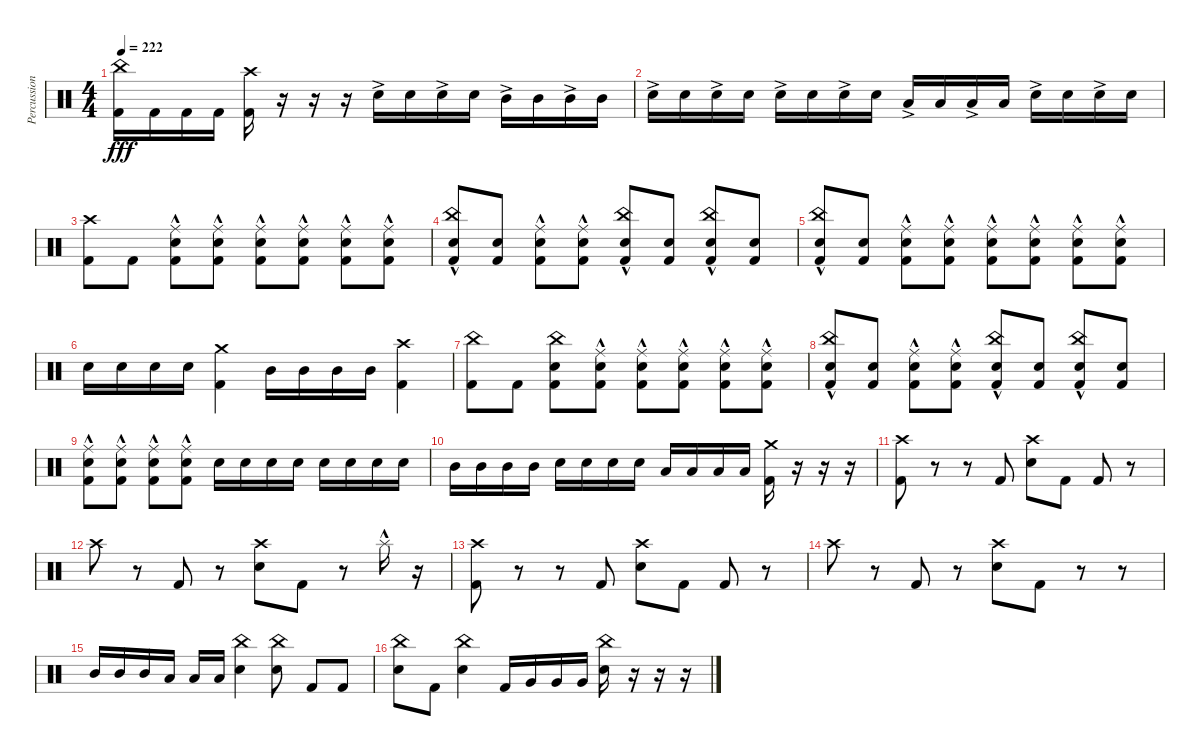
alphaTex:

\track ("Percussion" "Percussion") {instrument percussion}
\staff {score}
\articulation defaults
\ts (4 4)
\tempo 222
\clef neutral
\ks c
("Kick (hit) 2" "China (hit)").16{dy fff} "Kick (hit) 2".16 "Kick (hit) 2".16 "Kick (hit) 2".16 ("Kick (hit) 2" "Crash high (hit)").16 r.16 r.16 r.16 "Electric Snare (hit)"{ac}.16 "Electric Snare (hit)".16 "Electric Snare (hit)"{ac}.16 "Electric Snare (hit)".16 "Mid Tom (hit)"{ac}.16 "Mid Tom (hit)".16 "Mid Tom (hit)"{ac}.16 "Mid Tom (hit)".16 |
"Electric Snare (hit)"{ac}.16 "Electric Snare (hit)".16 "Electric Snare (hit)"{ac}.16 "Electric Snare (hit)".16 "Electric Snare (hit)"{ac}.16 "Electric Snare (hit)".16 "Electric Snare (hit)"{ac}.16 "Electric Snare (hit)".16 "Low Tom (hit)"{ac}.16 "Low Tom (hit)".16 "Low Tom (hit)"{ac}.16 "Low Tom (hit)".16 "Electric Snare (hit)"{ac}.16 "Electric Snare (hit)".16 "Electric Snare (hit)"{ac}.16 "Electric Snare (hit)".16 |
("Kick (hit) 2" "Crash high (hit)").8 "Kick (hit) 2".8 ("Kick (hit) 2" "Electric Snare (hit)" "Ride (middle)"{hac}).8 ("Kick (hit) 2" "Electric Snare (hit)" "Ride (middle)"{hac}).8 ("Kick (hit) 2" "Electric Snare (hit)" "Ride (middle)"{hac}).8 ("Kick (hit) 2" "Electric Snare (hit)" "Ride (middle)"{hac}).8 ("Kick (hit) 2" "Electric Snare (hit)" "Ride (middle)"{hac}).8 ("Kick (hit) 2" "Electric Snare (hit)" "Ride (middle)"{hac}).8 |
("Kick (hit) 2" "Electric Snare (hit)" "China (hit)"{hac}).8 ("Kick (hit) 2" "Electric Snare (hit)").8 ("Kick (hit) 2" "Electric Snare (hit)" "Ride (middle)"{hac}).8 ("Kick (hit) 2" "Electric Snare (hit)" "Ride (middle)"{hac}).8 ("Kick (hit) 2" "Electric Snare (hit)" "China (hit)"{hac}).8 ("Kick (hit) 2" "Electric Snare (hit)").8 ("Kick (hit) 2" "Electric Snare (hit)" "China (hit)"{hac}).8 ("Kick (hit) 2" "Electric Snare (hit)").8 |
("Kick (hit) 2" "Electric Snare (hit)" "China (hit)"{hac}).8 ("Kick (hit) 2" "Electric Snare (hit)").8 ("Kick (hit) 2" "Electric Snare (hit)" "Ride (middle)"{hac}).8 ("Kick (hit) 2" "Electric Snare (hit)" "Ride (middle)"{hac}).8 ("Kick (hit) 2" "Electric Snare (hit)" "Ride (middle)"{hac}).8 ("Kick (hit) 2" "Electric Snare (hit)" "Ride (middle)"{hac}).8 ("Kick (hit) 2" "Electric Snare (hit)" "Ride (middle)"{hac}).8 ("Kick (hit) 2" "Electric Snare (hit)" "Ride (middle)"{hac}).8 |
"Electric Snare (hit)".16 "Electric Snare (hit)".16 "Electric Snare (hit)".16 "Electric Snare (hit)".16 ("Kick (hit) 2" "Crash medium (hit)").4 "Mid Tom (hit)".16 "Mid Tom (hit)".16 "Mid Tom (hit)".16 "Mid Tom (hit)".16 ("Kick (hit) 2" "Crash high (hit)").4 |
("Kick (hit) 2" "China (hit)").8 "Kick (hit) 2".8 ("Kick (hit) 2" "Electric Snare (hit)" "China (hit)").8 ("Kick (hit) 2" "Electric Snare (hit)" "Ride (middle)"{hac}).8 ("Kick (hit) 2" "Electric Snare (hit)" "Ride (middle)"{hac}).8 ("Kick (hit) 2" "Electric Snare (hit)" "Ride (middle)"{hac}).8 ("Kick (hit) 2" "Electric Snare (hit)" "Ride (middle)"{hac}).8 ("Kick (hit) 2" "Electric Snare (hit)" "Ride (middle)"{hac}).8 |
("Kick (hit) 2" "Electric Snare (hit)" "China (hit)"{hac}).8 ("Kick (hit) 2" "Electric Snare (hit)").8 ("Kick (hit) 2" "Electric Snare (hit)" "Ride (middle)"{hac}).8 ("Kick (hit) 2" "Electric Snare (hit)" "Ride (middle)"{hac}).8 ("Kick (hit) 2" "Electric Snare (hit)" "China (hit)"{hac}).8 ("Kick (hit) 2" "Electric Snare (hit)").8 ("Kick (hit) 2" "Electric Snare (hit)" "China (hit)"{hac}).8 ("Kick (hit) 2" "Electric Snare (hit)").8 |
("Kick (hit) 2" "Electric Snare (hit)" "Ride (middle)"{hac}).8 ("Kick (hit) 2" "Electric Snare (hit)" "Ride (middle)"{hac}).8 ("Kick (hit) 2" "Electric Snare (hit)" "Ride (middle)"{hac}).8 ("Kick (hit) 2" "Electric Snare (hit)" "Ride (middle)"{hac}).8 "Electric Snare (hit)".16 "Electric Snare (hit)".16 "Electric Snare (hit)".16 "Electric Snare (hit)".16 "Electric Snare (hit)".16 "Electric Snare (hit)".16 "Electric Snare (hit)".16 "Electric Snare (hit)".16 |
"Mid Tom (hit)".16 "Mid Tom (hit)".16 "Mid Tom (hit)".16 "Mid Tom (hit)".16 "Electric Snare (hit)".16 "Electric Snare (hit)".16 "Electric Snare (hit)".16 "Electric Snare (hit)".16 "Low Tom (hit)".16 "Low Tom (hit)".16 "Low Tom (hit)".16 "Low Tom (hit)".16 ("Kick (hit) 2" "Crash medium (hit)").16 r.16 r.16 r.16 |
("Kick (hit) 2" "Crash high (hit)").8 r.8 r.8 "Kick (hit) 2".8 ("Electric Snare (hit)" "Crash high (hit)").8 "Kick (hit) 2".8 "Kick (hit) 2".8 r.8 |
"Crash high (hit)".8 r.8 "Kick (hit) 2".8 r.8 ("Electric Snare (hit)" "Crash high (hit)").8 "Kick (hit) 2".8 r.8 "Splash (hit)"{hac}.16 r.16 |
("Kick (hit) 2" "Crash high (hit)").8 r.8 r.8 "Kick (hit) 2".8 ("Electric Snare (hit)" "Crash high (hit)").8 "Kick (hit) 2".8 "Kick (hit) 2".8 r.8 |
"Crash high (hit)".8 r.8 "Kick (hit) 2".8 r.8 ("Electric Snare (hit)" "Crash high (hit)").8 "Kick (hit) 2".8 r.8 r.8 |
"Mid Tom (hit)".16 "Mid Tom (hit)".16 "Mid Tom (hit)".16 "Low Tom (hit)".16 "Low Tom (hit)".16 "Low Tom (hit)".16 ("Electric Snare (hit)" "China (hit)").4 ("Electric Snare (hit)" "China (hit)").8 "Kick (hit) 2".8 "Kick (hit) 2".8 |
("Electric Snare (hit)" "China (hit)").8 "Kick (hit) 2".8 ("Electric Snare (hit)" "China (hit)").4 "Kick (hit) 2".16 "Very Low Tom (hit)".16 "Very Low Tom (hit)".16 "Very Low Tom (hit)".16 ("Electric Snare (hit)" "China (hit)").16 r.16 r.16 r.16
